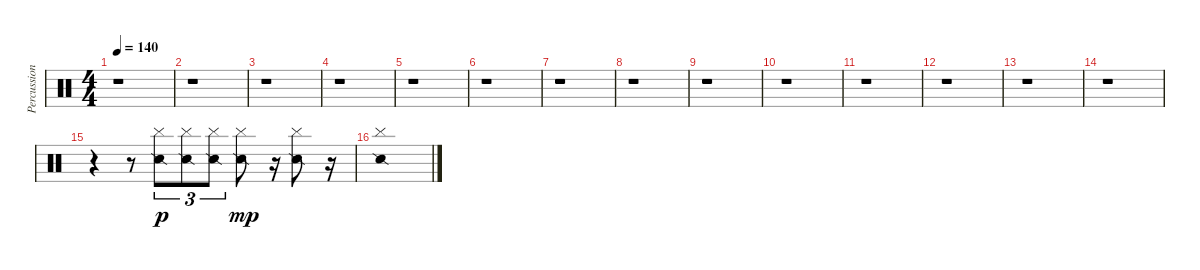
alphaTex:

\track ("Percussion" "Percussion") {instrument percussion}
\staff {score}
\articulation defaults
\ts (4 4)
\tempo 140
\clef neutral
\ks c
r.1{dy p} |
r.1 |
r.1 |
r.1 |
r.1 |
r.1 |
r.1 |
r.1 |
r.1 |
r.1 |
r.1 |
r.1 |
r.1 |
r.1 |
r.4 r.8 ("Cymbal (hit)" "Snare (side stick) 2").8{tu (3 2)} ("Cymbal (hit)" "Snare (side stick) 2").8{tu (3 2)} ("Cymbal (hit)" "Snare (side stick) 2").8{tu (3 2)} ("Cymbal (hit)" "Snare (side stick) 2").8{dy mp} r.16 ("Cymbal (hit)" "Snare (side stick) 2").8 r.16 |
("Cymbal (hit)" "Snare (side stick) 2").1
